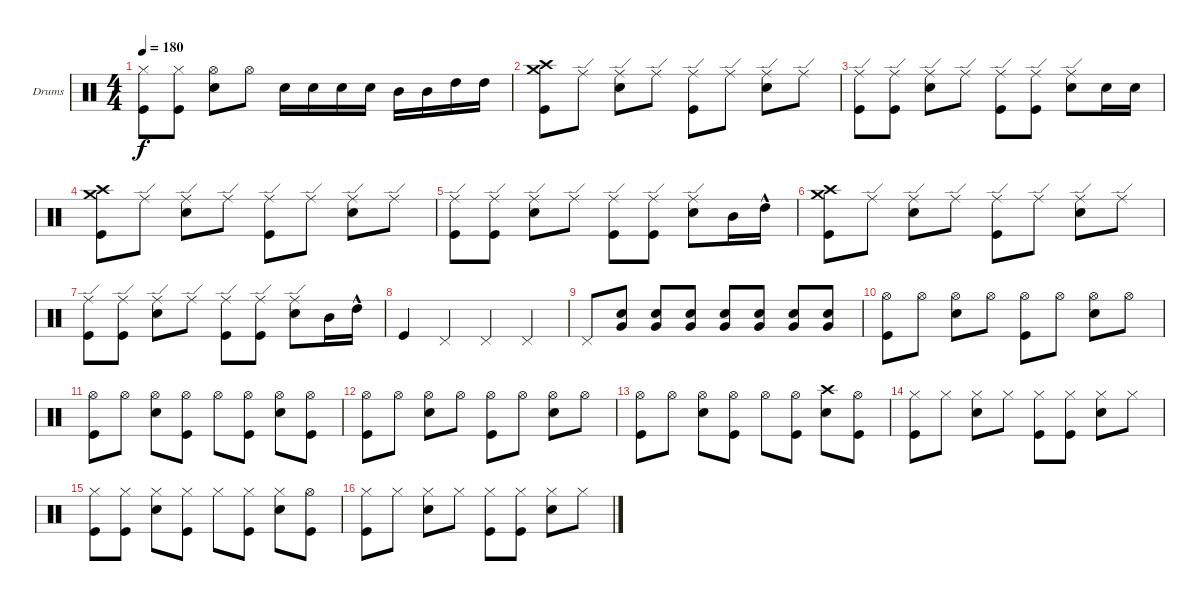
\bracketExtendMode groupsimilarinstruments
\firstSystemTrackNameOrientation horizontal
\otherSystemsTrackNameOrientation horizontal
\track ("Drumkit" "Drums") {instrument percussion}
\staff {score}
\articulation defaults
\ts (4 4)
\tempo 180
\clef neutral
\ks c
("Hi-Hat (closed)" "Kick (hit)").8{dy f} ("Hi-Hat (closed)" "Kick (hit)").8 ("Hi-Hat (open)" "Snare (hit) 2").8 "Hi-Hat (open)".8 "Snare (hit) 2".16 "Snare (hit) 2".16 "Snare (hit) 2".16 "Snare (hit) 2".16 "Mid Tom (hit)".16 "Mid Tom (hit)".16 "High Tom (hit)".16 "High Tom (hit)".16 |
("Kick (hit)" "Crash high (hit)" "Crash medium (hit)").8 "Ride (edge)".8 ("Snare (hit) 2" "Ride (edge)").8 "Ride (edge)".8 ("Kick (hit)" "Ride (edge)").8 "Ride (edge)".8 ("Snare (hit) 2" "Ride (edge)").8 "Ride (edge)".8 |
("Kick (hit)" "Ride (edge)").8 ("Kick (hit)" "Ride (edge)").8 ("Snare (hit) 2" "Ride (edge)").8 "Ride (edge)".8 ("Kick (hit)" "Ride (edge)").8 ("Kick (hit)" "Ride (edge)").8 ("Snare (hit) 2" "Ride (edge)").8 "Snare (hit) 2".16 "Snare (hit) 2".16 |
("Kick (hit)" "Crash high (hit)" "Crash medium (hit)").8 "Ride (edge)".8 ("Snare (hit) 2" "Ride (edge)").8 "Ride (edge)".8 ("Kick (hit)" "Ride (edge)").8 "Ride (edge)".8 ("Snare (hit) 2" "Ride (edge)").8 "Ride (edge)".8 |
("Kick (hit)" "Ride (edge)").8 ("Kick (hit)" "Ride (edge)").8 ("Snare (hit) 2" "Ride (edge)").8 "Ride (edge)".8 ("Kick (hit)" "Ride (edge)").8 ("Kick (hit)" "Ride (edge)").8 ("Snare (hit) 2" "Ride (edge)").8 "Mid Tom (hit)".16 "High Tom (hit)"{hac}.16 |
("Kick (hit)" "Crash high (hit)" "Crash medium (hit)").8 "Ride (edge)".8 ("Snare (hit) 2" "Ride (edge)").8 "Ride (edge)".8 ("Kick (hit)" "Ride (edge)").8 "Ride (edge)".8 ("Snare (hit) 2" "Ride (edge)").8 "Ride (edge)".8 |
("Kick (hit)" "Ride (edge)").8 ("Kick (hit)" "Ride (edge)").8 ("Snare (hit) 2" "Ride (edge)").8 "Ride (edge)".8 ("Kick (hit)" "Ride (edge)").8 ("Kick (hit)" "Ride (edge)").8 ("Snare (hit) 2" "Ride (edge)").8 "Mid Tom (hit)".16 "High Tom (hit)"{hac}.16 |
"Kick (hit)".4 "Pedal Hi-Hat (hit)".4 "Pedal Hi-Hat (hit)".4 "Pedal Hi-Hat (hit)".4 |
"Pedal Hi-Hat (hit)".8 ("Snare (hit) 2" "Very Low Tom (hit)").8 ("Snare (hit) 2" "Very Low Tom (hit)").8 ("Snare (hit) 2" "Very Low Tom (hit)").8 ("Snare (hit) 2" "Very Low Tom (hit)").8 ("Snare (hit) 2" "Very Low Tom (hit)").8 ("Snare (hit) 2" "Very Low Tom (hit)").8 ("Snare (hit) 2" "Very Low Tom (hit)").8 |
("Hi-Hat (open)" "Kick (hit)").8 "Hi-Hat (open)".8 ("Hi-Hat (open)" "Snare (hit) 2").8 "Hi-Hat (open)".8 ("Hi-Hat (open)" "Kick (hit)").8 "Hi-Hat (open)".8 ("Hi-Hat (open)" "Snare (hit) 2").8 "Hi-Hat (open)".8 |
("Hi-Hat (open)" "Kick (hit)").8 "Hi-Hat (open)".8 ("Hi-Hat (open)" "Snare (hit) 2").8 ("Hi-Hat (open)" "Kick (hit)").8 "Hi-Hat (open)".8 ("Hi-Hat (open)" "Kick (hit)").8 ("Hi-Hat (open)" "Snare (hit) 2").8 ("Hi-Hat (open)" "Kick (hit)").8 |
("Hi-Hat (open)" "Kick (hit)").8 "Hi-Hat (open)".8 ("Hi-Hat (open)" "Snare (hit) 2").8 "Hi-Hat (open)".8 ("Hi-Hat (open)" "Kick (hit)").8 "Hi-Hat (open)".8 ("Hi-Hat (open)" "Snare (hit) 2").8 "Hi-Hat (open)".8 |
("Hi-Hat (open)" "Kick (hit)").8 "Hi-Hat (open)".8 ("Hi-Hat (open)" "Snare (hit) 2").8 ("Hi-Hat (open)" "Kick (hit)").8 "Hi-Hat (open)".8 ("Hi-Hat (open)" "Kick (hit)").8 ("Crash high (hit)" "Snare (hit) 2").8 ("Hi-Hat (open)" "Kick (hit)").8 |
("Hi-Hat (closed)" "Kick (hit)").8 "Hi-Hat (closed)".8 ("Hi-Hat (closed)" "Snare (hit) 2").8 "Hi-Hat (closed)".8 ("Hi-Hat (closed)" "Kick (hit)").8 ("Hi-Hat (closed)" "Kick (hit)").8 ("Hi-Hat (closed)" "Snare (hit) 2").8 "Hi-Hat (closed)".8 |
("Hi-Hat (closed)" "Kick (hit)").8 ("Hi-Hat (closed)" "Kick (hit)").8 ("Hi-Hat (closed)" "Snare (hit) 2").8 ("Hi-Hat (closed)" "Kick (hit)").8 "Hi-Hat (closed)".8 ("Hi-Hat (closed)" "Kick (hit)").8 ("Hi-Hat (closed)" "Snare (hit) 2").8 ("Hi-Hat (open)" "Kick (hit)").8 |
("Hi-Hat (closed)" "Kick (hit)").8 "Hi-Hat (closed)".8 ("Hi-Hat (closed)" "Snare (hit) 2").8 "Hi-Hat (closed)".8 ("Hi-Hat (closed)" "Kick (hit)").8 ("Hi-Hat (closed)" "Kick (hit)").8 ("Hi-Hat (closed)" "Snare (hit) 2").8 "Hi-Hat (closed)".8
